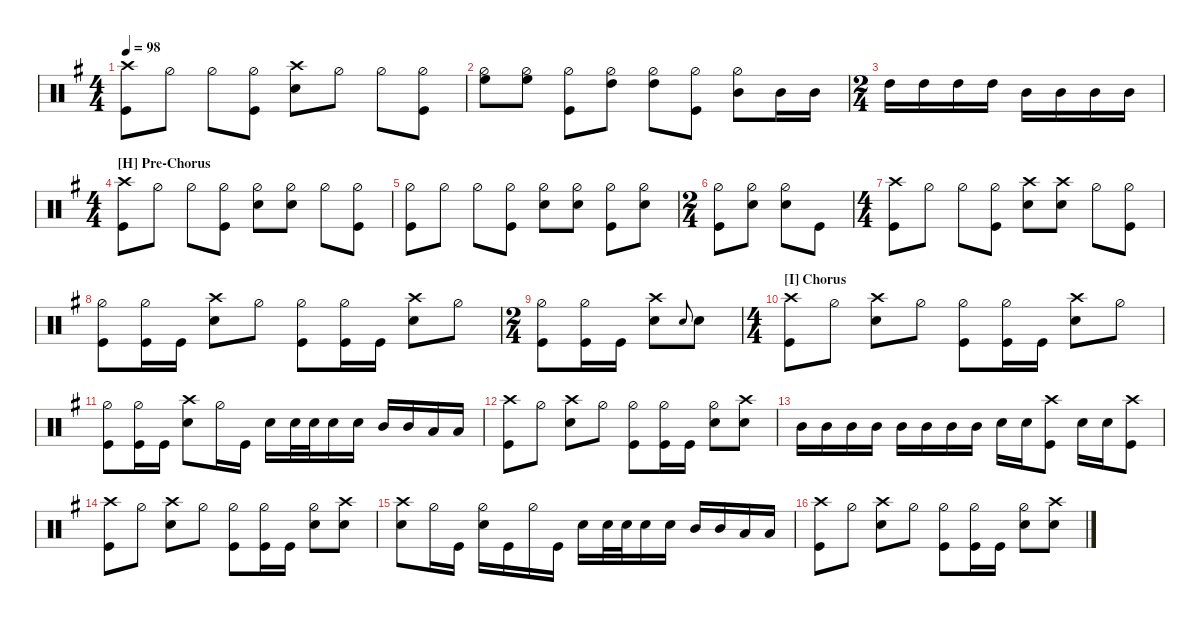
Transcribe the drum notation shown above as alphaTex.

\defaultSystemsLayout 4
\hideDynamics
\bracketExtendMode nobrackets
\track ("Drums" " ") {instrument percussion}
\staff
\articulation defaults
\ts (4 4)
\beaming (8 2 2 2 2)
\tempo 98
\clef neutral
\ks eminor
("Kick (hit)"{acc forcenatural} "Crash high (hit)"{acc forcenatural}).8{dy f} "Hi-Hat (half)"{acc forcenatural}.8 "Hi-Hat (half)"{acc forcenatural}.8 ("Hi-Hat (half)"{acc forcenatural} "Kick (hit)"{acc forcenatural}).8 ("Snare (hit) 2"{acc forcenatural} "Crash high (hit)"{acc forcenatural}).8 "Hi-Hat (half)"{acc forcenatural}.8 "Hi-Hat (half)"{acc forcenatural}.8 ("Hi-Hat (half)"{acc forcenatural} "Kick (hit)"{acc forcenatural}).8 |
("Hi-Hat (half)"{acc forcenatural} "High Floor Tom (hit)"{acc forcenatural}).8{dy ff} ("Hi-Hat (half)"{acc forcenatural} "High Floor Tom (hit)"{acc forcenatural}).8 ("Hi-Hat (half)"{acc forcenatural} "Kick (hit)"{acc forcenatural}).8{dy f} ("Hi-Hat (half)"{acc forcenatural} "High Tom (hit)"{acc forcenatural}).8{dy ff} ("Hi-Hat (half)"{acc forcenatural} "High Tom (hit)"{acc forcenatural}).8 ("Hi-Hat (half)"{acc forcenatural} "Kick (hit)"{acc forcenatural}).8{dy f} ("Hi-Hat (half)"{acc forcenatural} "Mid Tom (hit)"{acc forcenatural}).8{dy ff} "Mid Tom (hit)"{acc forcenatural}.16 "Mid Tom (hit)"{acc forcenatural}.16 |
\ts (2 4)
\beaming (8 2 2)
"High Tom (hit)"{acc forcenatural}.16 "High Tom (hit)"{acc forcenatural}.16 "High Tom (hit)"{acc forcenatural}.16 "High Tom (hit)"{acc forcenatural}.16 "Mid Tom (hit)"{acc forcenatural}.16 "Mid Tom (hit)"{acc forcenatural}.16 "Mid Tom (hit)"{acc forcenatural}.16 "Mid Tom (hit)"{acc forcenatural}.16 |
\ts (4 4)
\beaming (8 2 2 2 2)
\section ("H" "Pre-Chorus")
("Kick (hit)"{acc forcenatural} "Crash high (hit)"{acc forcenatural}).8{dy f} "Hi-Hat (half)"{acc forcenatural}.8 "Hi-Hat (half)"{acc forcenatural}.8 ("Hi-Hat (half)"{acc forcenatural} "Kick (hit)"{acc forcenatural}).8 ("Snare (hit) 2"{acc forcenatural} "Hi-Hat (half)"{acc forcenatural}).8 ("Hi-Hat (half)"{acc forcenatural} "Snare (hit) 2"{acc forcenatural}).8 "Hi-Hat (half)"{acc forcenatural}.8 ("Hi-Hat (half)"{acc forcenatural} "Kick (hit)"{acc forcenatural}).8 |
("Hi-Hat (half)"{acc forcenatural} "Kick (hit)"{acc forcenatural}).8 "Hi-Hat (half)"{acc forcenatural}.8 "Hi-Hat (half)"{acc forcenatural}.8 ("Hi-Hat (half)"{acc forcenatural} "Kick (hit)"{acc forcenatural}).8 ("Hi-Hat (half)"{acc forcenatural} "Snare (hit) 2"{acc forcenatural}).8 ("Hi-Hat (half)"{acc forcenatural} "Snare (hit) 2"{acc forcenatural}).8 ("Hi-Hat (half)"{acc forcenatural} "Kick (hit)"{acc forcenatural}).8 ("Hi-Hat (half)"{acc forcenatural} "Snare (hit) 2"{acc forcenatural}).8 |
\ts (2 4)
\beaming (8 2 2)
("Hi-Hat (half)"{acc forcenatural} "Kick (hit)"{acc forcenatural}).8 ("Hi-Hat (half)"{acc forcenatural} "Snare (hit) 2"{acc forcenatural}).8 ("Snare (hit) 2"{acc forcenatural} "Hi-Hat (half)"{acc forcenatural}).8 "Kick (hit)"{acc forcenatural}.8 |
\ts (4 4)
\beaming (8 2 2 2 2)
("Kick (hit)"{acc forcenatural} "Crash high (hit)"{acc forcenatural}).8 "Hi-Hat (half)"{acc forcenatural}.8 "Hi-Hat (half)"{acc forcenatural}.8 ("Hi-Hat (half)"{acc forcenatural} "Kick (hit)"{acc forcenatural}).8 ("Snare (hit) 2"{acc forcenatural} "Crash high (hit)"{acc forcenatural}).8 ("Snare (hit) 2"{acc forcenatural} "Crash high (hit)"{acc forcenatural}).8 "Hi-Hat (half)"{acc forcenatural}.8 ("Hi-Hat (half)"{acc forcenatural} "Kick (hit)"{acc forcenatural}).8 |
("Hi-Hat (half)"{acc forcenatural} "Kick (hit)"{acc forcenatural}).8 ("Hi-Hat (half)"{acc forcenatural} "Kick (hit)"{acc forcenatural}).16 "Kick (hit)"{acc forcenatural}.16 ("Snare (hit) 2"{acc forcenatural} "Crash high (hit)"{acc forcenatural}).8 "Hi-Hat (half)"{acc forcenatural}.8 ("Hi-Hat (half)"{acc forcenatural} "Kick (hit)"{acc forcenatural}).8 ("Hi-Hat (half)"{acc forcenatural} "Kick (hit)"{acc forcenatural}).16 "Kick (hit)"{acc forcenatural}.16 ("Snare (hit) 2"{acc forcenatural} "Crash high (hit)"{acc forcenatural}).8 "Hi-Hat (half)"{acc forcenatural}.8 |
\ts (2 4)
\beaming (8 2 2)
("Hi-Hat (half)"{acc forcenatural} "Kick (hit)"{acc forcenatural}).8 ("Hi-Hat (half)"{acc forcenatural} "Kick (hit)"{acc forcenatural}).16 "Kick (hit)"{acc forcenatural}.16 ("Snare (hit) 2"{acc forcenatural} "Crash high (hit)"{acc forcenatural}).8 "Snare (hit) 2"{acc forcenatural}.8{gr onbeat} "Snare (hit) 2"{acc forcenatural}.8 |
\ts (4 4)
\beaming (8 2 2 2 2)
\section ("I" "Chorus")
("Kick (hit)"{acc forcenatural} "Crash high (hit)"{acc forcenatural}).8 "Hi-Hat (half)"{acc forcenatural}.8 ("Snare (hit) 2"{acc forcenatural} "Crash high (hit)"{acc forcenatural}).8 "Hi-Hat (half)"{acc forcenatural}.8 ("Hi-Hat (half)"{acc forcenatural} "Kick (hit)"{acc forcenatural}).8 ("Hi-Hat (half)"{acc forcenatural} "Kick (hit)"{acc forcenatural}).16 "Kick (hit)"{acc forcenatural}.16 ("Snare (hit) 2"{acc forcenatural} "Crash high (hit)"{acc forcenatural}).8 "Hi-Hat (half)"{acc forcenatural}.8 |
("Hi-Hat (half)"{acc forcenatural} "Kick (hit)"{acc forcenatural}).8 ("Hi-Hat (half)"{acc forcenatural} "Kick (hit)"{acc forcenatural}).16 "Kick (hit)"{acc forcenatural}.16 ("Snare (hit) 2"{acc forcenatural} "Crash high (hit)"{acc forcenatural}).8 "Hi-Hat (half)"{acc forcenatural}.16 "Kick (hit)"{acc forcenatural}.16 "Snare (hit) 2"{acc forcenatural}.16 "Snare (hit) 2"{acc forcenatural}.32 "Snare (hit) 2"{acc forcenatural}.32 "Snare (hit) 2"{acc forcenatural}.16 "Snare (hit) 2"{acc forcenatural}.16 "Mid Tom (hit)"{acc forcenatural}.16{dy fff} "Mid Tom (hit)"{acc forcenatural}.16 "Low Tom (hit)"{acc forcenatural}.16 "Low Tom (hit)"{acc forcenatural}.16 |
("Kick (hit)"{acc forcenatural} "Crash high (hit)"{acc forcenatural}).8{dy f} "Hi-Hat (half)"{acc forcenatural}.8 ("Snare (hit) 2"{acc forcenatural} "Crash high (hit)"{acc forcenatural}).8 "Hi-Hat (half)"{acc forcenatural}.8 ("Hi-Hat (half)"{acc forcenatural} "Kick (hit)"{acc forcenatural}).8 ("Hi-Hat (half)"{acc forcenatural} "Kick (hit)"{acc forcenatural}).16 "Kick (hit)"{acc forcenatural}.16 ("Snare (hit) 2"{acc forcenatural} "Hi-Hat (half)"{acc forcenatural}).8 ("Snare (hit) 2"{acc forcenatural} "Crash high (hit)"{acc forcenatural}).8 |
"Mid Tom (hit)"{acc forcenatural}.16{dy fff} "Mid Tom (hit)"{acc forcenatural}.16 "Mid Tom (hit)"{acc forcenatural}.16 "Mid Tom (hit)"{acc forcenatural}.16 "Mid Tom (hit)"{acc forcenatural}.16 "Mid Tom (hit)"{acc forcenatural}.16 "Mid Tom (hit)"{acc forcenatural}.16 "Mid Tom (hit)"{acc forcenatural}.16 "Snare (hit) 2"{acc forcenatural}.16{dy f} "Snare (hit) 2"{acc forcenatural}.16 ("Kick (hit)"{acc forcenatural} "Crash high (hit)"{acc forcenatural}).8 "Snare (hit) 2"{acc forcenatural}.16 "Snare (hit) 2"{acc forcenatural}.16 ("Kick (hit)"{acc forcenatural} "Crash high (hit)"{acc forcenatural}).8 |
("Kick (hit)"{acc forcenatural} "Crash high (hit)"{acc forcenatural}).8 "Hi-Hat (half)"{acc forcenatural}.8 ("Snare (hit) 2"{acc forcenatural} "Crash high (hit)"{acc forcenatural}).8 "Hi-Hat (half)"{acc forcenatural}.8 ("Hi-Hat (half)"{acc forcenatural} "Kick (hit)"{acc forcenatural}).8 ("Hi-Hat (half)"{acc forcenatural} "Kick (hit)"{acc forcenatural}).16 "Kick (hit)"{acc forcenatural}.16 ("Snare (hit) 2"{acc forcenatural} "Hi-Hat (half)"{acc forcenatural}).8 ("Snare (hit) 2"{acc forcenatural} "Crash high (hit)"{acc forcenatural}).8 |
("Snare (hit) 2"{acc forcenatural} "Crash high (hit)"{acc forcenatural}).8 "Hi-Hat (half)"{acc forcenatural}.16 "Kick (hit)"{acc forcenatural}.16 ("Snare (hit) 2"{acc forcenatural} "Hi-Hat (half)"{acc forcenatural}).16 "Kick (hit)"{acc forcenatural}.16 "Hi-Hat (half)"{acc forcenatural}.16 "Kick (hit)"{acc forcenatural}.16 "Snare (hit) 2"{acc forcenatural}.16 "Snare (hit) 2"{acc forcenatural}.32 "Snare (hit) 2"{acc forcenatural}.32 "Snare (hit) 2"{acc forcenatural}.16 "Snare (hit) 2"{acc forcenatural}.16 "Mid Tom (hit)"{acc forcenatural}.16{dy fff} "Mid Tom (hit)"{acc forcenatural}.16 "Low Tom (hit)"{acc forcenatural}.16 "Low Tom (hit)"{acc forcenatural}.16 |
("Kick (hit)"{acc forcenatural} "Crash high (hit)"{acc forcenatural}).8{dy f} "Hi-Hat (half)"{acc forcenatural}.8 ("Snare (hit) 2"{acc forcenatural} "Crash high (hit)"{acc forcenatural}).8 "Hi-Hat (half)"{acc forcenatural}.8 ("Hi-Hat (half)"{acc forcenatural} "Kick (hit)"{acc forcenatural}).8 ("Hi-Hat (half)"{acc forcenatural} "Kick (hit)"{acc forcenatural}).16 "Kick (hit)"{acc forcenatural}.16 ("Snare (hit) 2"{acc forcenatural} "Hi-Hat (half)"{acc forcenatural}).8 ("Snare (hit) 2"{acc forcenatural} "Crash high (hit)"{acc forcenatural}).8
